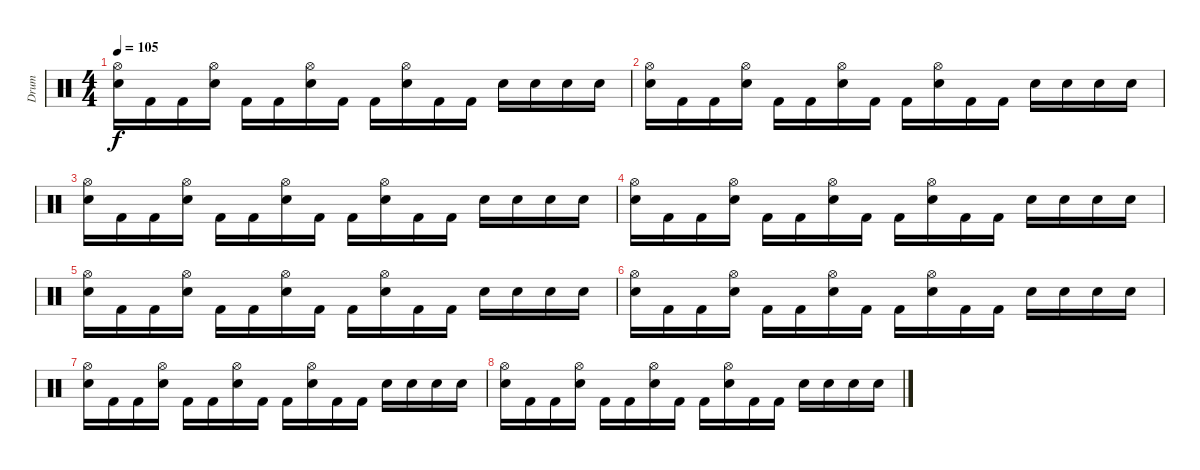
\track ("Drum" "Drum") {instrument percussion}
\staff {score}
\articulation defaults
\ts (4 4)
\tempo 105
\clef neutral
\ks c
("Hi-Hat (open)" "Electric Snare (hit)").16{dy f} "Kick (hit) 2".16 "Kick (hit) 2".16 ("Hi-Hat (open)" "Electric Snare (hit)").16 "Kick (hit) 2".16 "Kick (hit) 2".16 ("Hi-Hat (open)" "Electric Snare (hit)").16 "Kick (hit) 2".16 "Kick (hit) 2".16 ("Hi-Hat (open)" "Electric Snare (hit)").16 "Kick (hit) 2".16 "Kick (hit) 2".16 "Electric Snare (hit)".16 "Electric Snare (hit)".16 "Electric Snare (hit)".16 "Electric Snare (hit)".16 |
("Hi-Hat (open)" "Electric Snare (hit)").16 "Kick (hit) 2".16 "Kick (hit) 2".16 ("Hi-Hat (open)" "Electric Snare (hit)").16 "Kick (hit) 2".16 "Kick (hit) 2".16 ("Hi-Hat (open)" "Electric Snare (hit)").16 "Kick (hit) 2".16 "Kick (hit) 2".16 ("Hi-Hat (open)" "Electric Snare (hit)").16 "Kick (hit) 2".16 "Kick (hit) 2".16 "Electric Snare (hit)".16 "Electric Snare (hit)".16 "Electric Snare (hit)".16 "Electric Snare (hit)".16 |
("Hi-Hat (open)" "Electric Snare (hit)").16 "Kick (hit) 2".16 "Kick (hit) 2".16 ("Hi-Hat (open)" "Electric Snare (hit)").16 "Kick (hit) 2".16 "Kick (hit) 2".16 ("Hi-Hat (open)" "Electric Snare (hit)").16 "Kick (hit) 2".16 "Kick (hit) 2".16 ("Hi-Hat (open)" "Electric Snare (hit)").16 "Kick (hit) 2".16 "Kick (hit) 2".16 "Electric Snare (hit)".16 "Electric Snare (hit)".16 "Electric Snare (hit)".16 "Electric Snare (hit)".16 |
("Hi-Hat (open)" "Electric Snare (hit)").16 "Kick (hit) 2".16 "Kick (hit) 2".16 ("Hi-Hat (open)" "Electric Snare (hit)").16 "Kick (hit) 2".16 "Kick (hit) 2".16 ("Hi-Hat (open)" "Electric Snare (hit)").16 "Kick (hit) 2".16 "Kick (hit) 2".16 ("Hi-Hat (open)" "Electric Snare (hit)").16 "Kick (hit) 2".16 "Kick (hit) 2".16 "Electric Snare (hit)".16 "Electric Snare (hit)".16 "Electric Snare (hit)".16 "Electric Snare (hit)".16 |
("Hi-Hat (open)" "Electric Snare (hit)").16 "Kick (hit) 2".16 "Kick (hit) 2".16 ("Hi-Hat (open)" "Electric Snare (hit)").16 "Kick (hit) 2".16 "Kick (hit) 2".16 ("Hi-Hat (open)" "Electric Snare (hit)").16 "Kick (hit) 2".16 "Kick (hit) 2".16 ("Hi-Hat (open)" "Electric Snare (hit)").16 "Kick (hit) 2".16 "Kick (hit) 2".16 "Electric Snare (hit)".16 "Electric Snare (hit)".16 "Electric Snare (hit)".16 "Electric Snare (hit)".16 |
("Hi-Hat (open)" "Electric Snare (hit)").16 "Kick (hit) 2".16 "Kick (hit) 2".16 ("Hi-Hat (open)" "Electric Snare (hit)").16 "Kick (hit) 2".16 "Kick (hit) 2".16 ("Hi-Hat (open)" "Electric Snare (hit)").16 "Kick (hit) 2".16 "Kick (hit) 2".16 ("Hi-Hat (open)" "Electric Snare (hit)").16 "Kick (hit) 2".16 "Kick (hit) 2".16 "Electric Snare (hit)".16 "Electric Snare (hit)".16 "Electric Snare (hit)".16 "Electric Snare (hit)".16 |
("Hi-Hat (open)" "Electric Snare (hit)").16 "Kick (hit) 2".16 "Kick (hit) 2".16 ("Hi-Hat (open)" "Electric Snare (hit)").16 "Kick (hit) 2".16 "Kick (hit) 2".16 ("Hi-Hat (open)" "Electric Snare (hit)").16 "Kick (hit) 2".16 "Kick (hit) 2".16 ("Hi-Hat (open)" "Electric Snare (hit)").16 "Kick (hit) 2".16 "Kick (hit) 2".16 "Electric Snare (hit)".16 "Electric Snare (hit)".16 "Electric Snare (hit)".16 "Electric Snare (hit)".16 |
("Hi-Hat (open)" "Electric Snare (hit)").16 "Kick (hit) 2".16 "Kick (hit) 2".16 ("Hi-Hat (open)" "Electric Snare (hit)").16 "Kick (hit) 2".16 "Kick (hit) 2".16 ("Hi-Hat (open)" "Electric Snare (hit)").16 "Kick (hit) 2".16 "Kick (hit) 2".16 ("Hi-Hat (open)" "Electric Snare (hit)").16 "Kick (hit) 2".16 "Kick (hit) 2".16 "Electric Snare (hit)".16 "Electric Snare (hit)".16 "Electric Snare (hit)".16 "Electric Snare (hit)".16
